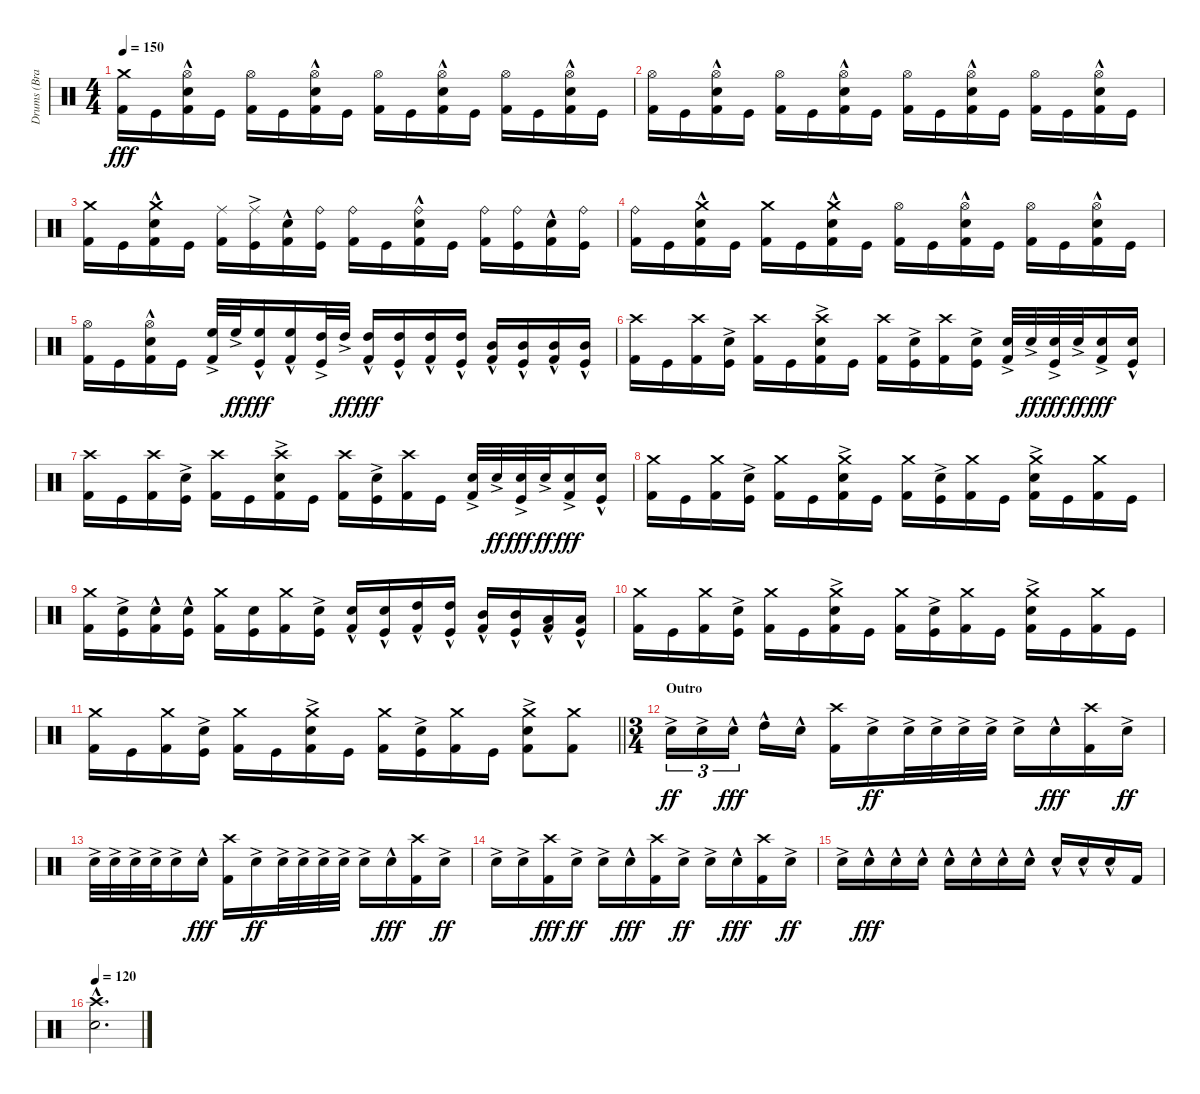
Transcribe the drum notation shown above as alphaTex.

\track ("Drums (Brann Dailor)" "Drums (Bra") {instrument percussion}
\staff {score}
\articulation defaults
\ts (4 4)
\tempo 150
\clef neutral
\ks c
("Crash medium (hit)" "Kick (hit) 2").16{dy fff} "Kick (hit)".16 ("Hi-Hat (open)" "Electric Snare (hit)"{hac} "Kick (hit) 2").16 "Kick (hit)".16 ("Hi-Hat (open)" "Kick (hit) 2").16 "Kick (hit)".16 ("Hi-Hat (open)" "Electric Snare (hit)"{hac} "Kick (hit) 2").16 "Kick (hit)".16 ("Hi-Hat (open)" "Kick (hit) 2").16 "Kick (hit)".16 ("Hi-Hat (open)" "Electric Snare (hit)"{hac} "Kick (hit) 2").16 "Kick (hit)".16 ("Hi-Hat (open)" "Kick (hit) 2").16 "Kick (hit)".16 ("Hi-Hat (open)" "Electric Snare (hit)"{hac} "Kick (hit) 2").16 "Kick (hit)".16 |
("Hi-Hat (open)" "Kick (hit) 2").16 "Kick (hit)".16 ("Hi-Hat (open)" "Electric Snare (hit)"{hac} "Kick (hit) 2").16 "Kick (hit)".16 ("Hi-Hat (open)" "Kick (hit) 2").16 "Kick (hit)".16 ("Hi-Hat (open)" "Electric Snare (hit)"{hac} "Kick (hit) 2").16 "Kick (hit)".16 ("Hi-Hat (open)" "Kick (hit) 2").16 "Kick (hit)".16 ("Hi-Hat (open)" "Electric Snare (hit)"{hac} "Kick (hit) 2").16 "Kick (hit)".16 ("Hi-Hat (open)" "Kick (hit) 2").16 "Kick (hit)".16 ("Hi-Hat (open)" "Electric Snare (hit)"{hac} "Kick (hit) 2").16 "Kick (hit)".16 |
("Crash medium (hit)" "Kick (hit) 2").16 "Kick (hit)".16 ("Crash medium (hit)" "Electric Snare (hit)"{hac} "Kick (hit) 2").16 "Kick (hit)".16 ("Ride (middle)" "Kick (hit) 2").16 ("Ride (middle)"{ac} "Kick (hit)").16 ("Electric Snare (hit)"{hac} "Kick (hit) 2").16 ("Ride (bell)" "Kick (hit)").16 ("Ride (bell)" "Kick (hit) 2").16 "Kick (hit)".16 ("Ride (bell)" "Electric Snare (hit)"{hac} "Kick (hit) 2").16 "Kick (hit)".16 ("Ride (bell)" "Kick (hit) 2").16 ("Ride (bell)" "Kick (hit)").16 ("Electric Snare (hit)"{hac} "Kick (hit) 2").16 ("Ride (bell)" "Kick (hit)").16 |
("Ride (bell)" "Kick (hit) 2").16 "Kick (hit)".16 ("Crash medium (hit)" "Electric Snare (hit)"{hac} "Kick (hit) 2").16 "Kick (hit)".16 ("Crash medium (hit)" "Kick (hit) 2").16 "Kick (hit)".16 ("Crash medium (hit)" "Electric Snare (hit)"{hac} "Kick (hit) 2").16 "Kick (hit)".16 ("Hi-Hat (open)" "Kick (hit) 2").16 "Kick (hit)".16 ("Hi-Hat (open)" "Electric Snare (hit)"{hac} "Kick (hit) 2").16 "Kick (hit)".16 ("Hi-Hat (open)" "Kick (hit) 2").16 "Kick (hit)".16 ("Hi-Hat (open)" "Electric Snare (hit)"{hac} "Kick (hit) 2").16 "Kick (hit)".16 |
("Hi-Hat (open)" "Kick (hit) 2").16 "Kick (hit)".16 ("Hi-Hat (open)" "Electric Snare (hit)"{hac} "Kick (hit) 2").16 "Kick (hit)".16 ("High Floor Tom (hit)"{ac} "Kick (hit) 2").32 "High Floor Tom (hit)"{ac}.32{dy ff} ("High Floor Tom (hit)"{hac} "Kick (hit)").16{dy fff} ("High Floor Tom (hit)"{hac} "Kick (hit) 2").16 ("High Tom (hit)"{ac} "Kick (hit)").32 "High Tom (hit)"{ac}.32{dy ff} ("High Tom (hit)"{hac} "Kick (hit) 2").16{dy fff} ("High Tom (hit)"{hac} "Kick (hit)").16 ("High Tom (hit)"{hac} "Kick (hit) 2").16 ("High Tom (hit)"{hac} "Kick (hit)").16 ("Mid Tom (hit)"{hac} "Kick (hit) 2").16 ("Mid Tom (hit)"{hac} "Kick (hit)").16 ("Mid Tom (hit)"{hac} "Kick (hit) 2").16 ("Mid Tom (hit)"{hac} "Kick (hit)").16 |
("Crash high (hit)" "Kick (hit) 2").16 "Kick (hit)".16 ("Crash high (hit)" "Kick (hit) 2").16 ("Electric Snare (hit)"{ac} "Kick (hit)").16 ("Crash high (hit)" "Kick (hit) 2").16 "Kick (hit)".16 ("Crash high (hit)" "Electric Snare (hit)"{ac} "Kick (hit) 2").16 "Kick (hit)".16 ("Crash high (hit)" "Kick (hit) 2").16 ("Electric Snare (hit)"{ac} "Kick (hit)").16 ("Crash high (hit)" "Kick (hit) 2").16 ("Electric Snare (hit)"{ac} "Kick (hit)").16 ("Electric Snare (hit)"{ac} "Kick (hit) 2").32 "Electric Snare (hit)"{ac}.32{dy ff} ("Electric Snare (hit)"{ac} "Kick (hit)").32{dy fff} "Electric Snare (hit)"{ac}.32{dy ff} ("Electric Snare (hit)"{ac} "Kick (hit) 2").16{dy fff} ("Electric Snare (hit)"{hac} "Kick (hit)").16 |
("Crash high (hit)" "Kick (hit) 2").16 "Kick (hit)".16 ("Crash high (hit)" "Kick (hit) 2").16 ("Electric Snare (hit)"{ac} "Kick (hit)").16 ("Crash high (hit)" "Kick (hit) 2").16 "Kick (hit)".16 ("Crash high (hit)" "Electric Snare (hit)"{ac} "Kick (hit) 2").16 "Kick (hit)".16 ("Crash high (hit)" "Kick (hit) 2").16 ("Electric Snare (hit)"{ac} "Kick (hit)").16 ("Crash high (hit)" "Kick (hit) 2").16 "Kick (hit)".16 ("Electric Snare (hit)"{ac} "Kick (hit) 2").32 "Electric Snare (hit)"{ac}.32{dy ff} ("Electric Snare (hit)"{ac} "Kick (hit)").32{dy fff} "Electric Snare (hit)"{ac}.32{dy ff} ("Electric Snare (hit)"{ac} "Kick (hit) 2").16{dy fff} ("Electric Snare (hit)"{hac} "Kick (hit)").16 |
("Crash medium (hit)" "Kick (hit) 2").16 "Kick (hit)".16 ("Crash medium (hit)" "Kick (hit) 2").16 ("Electric Snare (hit)"{ac} "Kick (hit)").16 ("Crash medium (hit)" "Kick (hit) 2").16 "Kick (hit)".16 ("Crash medium (hit)" "Electric Snare (hit)"{ac} "Kick (hit) 2").16 "Kick (hit)".16 ("Crash medium (hit)" "Kick (hit) 2").16 ("Electric Snare (hit)"{ac} "Kick (hit)").16 ("Crash medium (hit)" "Kick (hit) 2").16 "Kick (hit)".16 ("Crash medium (hit)" "Electric Snare (hit)"{ac} "Kick (hit) 2").16 "Kick (hit)".16 ("Crash medium (hit)" "Kick (hit) 2").16 "Kick (hit)".16 |
("Crash medium (hit)" "Kick (hit) 2").16 ("Electric Snare (hit)"{ac} "Kick (hit)").16 ("Electric Snare (hit)"{hac} "Kick (hit) 2").16 ("Electric Snare (hit)"{hac} "Kick (hit)").16 ("Crash medium (hit)" "Kick (hit) 2").16 ("Electric Snare (hit)" "Kick (hit)").16 ("Crash medium (hit)" "Kick (hit) 2").16 ("Electric Snare (hit)"{ac} "Kick (hit)").16 ("Electric Snare (hit)"{hac} "Kick (hit) 2").16 ("Electric Snare (hit)"{hac} "Kick (hit)").16 ("High Tom (hit)"{hac} "Kick (hit) 2").16 ("High Tom (hit)"{hac} "Kick (hit)").16 ("Mid Tom (hit)"{hac} "Kick (hit) 2").16 ("Mid Tom (hit)"{hac} "Kick (hit)").16 ("Low Tom (hit)"{hac} "Kick (hit) 2").16 ("Low Tom (hit)"{hac} "Kick (hit)").16 |
("Crash medium (hit)" "Kick (hit) 2").16 "Kick (hit)".16 ("Crash medium (hit)" "Kick (hit) 2").16 ("Electric Snare (hit)"{ac} "Kick (hit)").16 ("Crash medium (hit)" "Kick (hit) 2").16 "Kick (hit)".16 ("Crash medium (hit)" "Electric Snare (hit)"{ac} "Kick (hit) 2").16 "Kick (hit)".16 ("Crash medium (hit)" "Kick (hit) 2").16 ("Electric Snare (hit)"{ac} "Kick (hit)").16 ("Crash medium (hit)" "Kick (hit) 2").16 "Kick (hit)".16 ("Crash medium (hit)" "Electric Snare (hit)"{ac} "Kick (hit) 2").16 "Kick (hit)".16 ("Crash medium (hit)" "Kick (hit) 2").16 "Kick (hit)".16 |
\barLineRight lightlight
("Crash medium (hit)" "Kick (hit) 2").16 "Kick (hit)".16 ("Crash medium (hit)" "Kick (hit) 2").16 ("Electric Snare (hit)"{ac} "Kick (hit)").16 ("Crash medium (hit)" "Kick (hit) 2").16 "Kick (hit)".16 ("Crash medium (hit)" "Electric Snare (hit)"{ac} "Kick (hit) 2").16 "Kick (hit)".16 ("Crash medium (hit)" "Kick (hit) 2").16 ("Electric Snare (hit)"{ac} "Kick (hit)").16 ("Crash medium (hit)" "Kick (hit) 2").16 "Kick (hit)".16 ("Crash medium (hit)" "Electric Snare (hit)"{ac} "Kick (hit) 2").8 ("Crash medium (hit)" "Kick (hit) 2").8 |
\ts (3 4)
\section ("" "Outro")
"Electric Snare (hit)"{ac}.16{tu (3 2) dy ff} "Electric Snare (hit)"{ac}.16{tu (3 2)} "Electric Snare (hit)"{hac}.16{tu (3 2) dy fff beam splitsecondary} "High Tom (hit)"{hac}.16 "Electric Snare (hit)"{hac}.16 ("Crash high (hit)" "Kick (hit) 2").16 "Electric Snare (hit)"{ac}.16{dy ff} "Electric Snare (hit)"{ac}.32 "Electric Snare (hit)"{ac}.32 "Electric Snare (hit)"{ac}.32 "Electric Snare (hit)"{ac}.32 "Electric Snare (hit)"{ac}.16 "Electric Snare (hit)"{hac}.16{dy fff} ("Crash high (hit)" "Kick (hit) 2").16 "Electric Snare (hit)"{ac}.16{dy ff} |
"Electric Snare (hit)"{ac}.32 "Electric Snare (hit)"{ac}.32 "Electric Snare (hit)"{ac}.32 "Electric Snare (hit)"{ac}.32 "Electric Snare (hit)"{ac}.16 "Electric Snare (hit)"{hac}.16{dy fff} ("Crash high (hit)" "Kick (hit) 2").16 "Electric Snare (hit)"{ac}.16{dy ff} "Electric Snare (hit)"{ac}.32 "Electric Snare (hit)"{ac}.32 "Electric Snare (hit)"{ac}.32 "Electric Snare (hit)"{ac}.32 "Electric Snare (hit)"{ac}.16 "Electric Snare (hit)"{hac}.16{dy fff} ("Crash high (hit)" "Kick (hit) 2").16 "Electric Snare (hit)"{ac}.16{dy ff} |
"Electric Snare (hit)"{ac}.16 "Electric Snare (hit)"{ac}.16 ("Crash high (hit)" "Kick (hit) 2").16{dy fff} "Electric Snare (hit)"{ac}.16{dy ff} "Electric Snare (hit)"{ac}.16 "Electric Snare (hit)"{hac}.16{dy fff} ("Crash high (hit)" "Kick (hit) 2").16 "Electric Snare (hit)"{ac}.16{dy ff} "Electric Snare (hit)"{ac}.16 "Electric Snare (hit)"{hac}.16{dy fff} ("Crash high (hit)" "Kick (hit) 2").16 "Electric Snare (hit)"{ac}.16{dy ff} |
"Electric Snare (hit)"{ac}.16 "Electric Snare (hit)"{hac}.16{dy fff} "Electric Snare (hit)"{hac}.16 "Electric Snare (hit)"{hac}.16 "Electric Snare (hit)"{hac}.16 "Electric Snare (hit)"{hac}.16 "Electric Snare (hit)"{hac}.16 "Electric Snare (hit)"{hac}.16 "Electric Snare (hit)"{hac}.16 "Electric Snare (hit)"{hac}.16 "Electric Snare (hit)"{hac}.16 "Kick (hit) 2".16 |
\tempo 120
("Crash high (hit)" "Electric Snare (hit)"{hac}).2{d}
